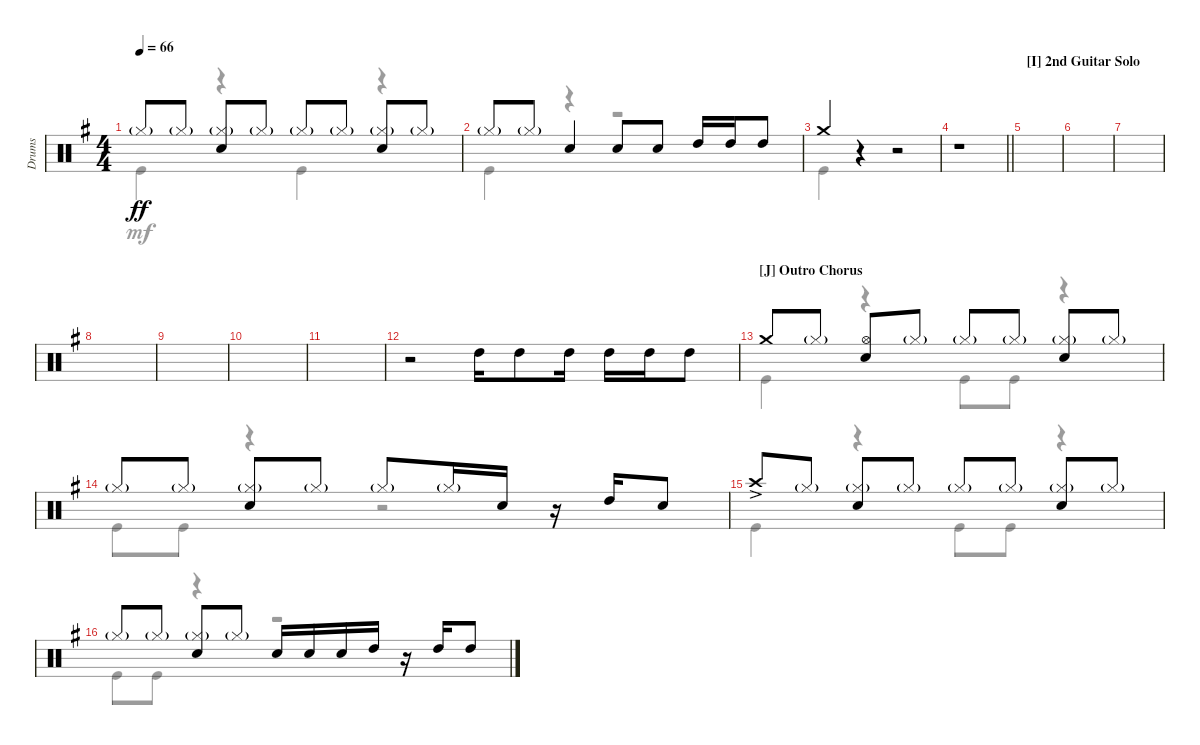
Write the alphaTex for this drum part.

\defaultSystemsLayout 4
\bracketExtendMode groupsimilarinstruments
\otherSystemsTrackNameOrientation horizontal
\track ("Drumkit" "Drums") {instrument percussion}
\staff {score}
\articulation defaults
\voice
\ts (4 4)
\tempo 66
\clef neutral
\ks g "Hi-Hat (closed)"{g}.8{dy ff} "Hi-Hat (closed)"{g}.8
("Hi-Hat (closed)"{g} "Snare (hit) 2").8 "Hi-Hat (closed)"{g}.8 "Hi-Hat (closed)"{g}.8 "Hi-Hat (closed)"{g}.8 ("Hi-Hat (closed)"{g} "Snare (hit) 2").8 "Hi-Hat (closed)"{g}.8 |
"Hi-Hat (closed)"{g}.8 "Hi-Hat (closed)"{g}.8 "Snare (hit) 2".4 "Snare (hit) 2".8 "Snare (hit) 2".8 "High Tom (hit)".16 "High Tom (hit)".16 "High Tom (hit)".8 |
"Crash medium (hit)".4 r.4 r.2 |
\barLineRight lightlight
r.1 |
\section ("I" "2nd Guitar Solo")
|
|
|
|
|
|
|
r.2 "High Tom (hit)".16 "High Tom (hit)".8 "High Tom (hit)".16 "High Tom (hit)".16 "High Tom (hit)".16 "High Tom (hit)".8 |
\section ("J" "Outro Chorus")
"Crash medium (hit)".8 "Hi-Hat (closed)"{g}.8 ("Hi-Hat (open)" "Snare (hit) 2").8 "Hi-Hat (closed)"{g}.8 "Hi-Hat (closed)"{g}.8 "Hi-Hat (closed)"{g}.8 ("Hi-Hat (closed)"{g} "Snare (hit) 2").8 "Hi-Hat (closed)"{g}.8 |
"Hi-Hat (closed)"{g}.8 "Hi-Hat (closed)"{g}.8 ("Hi-Hat (closed)"{g} "Snare (hit) 2").8 "Hi-Hat (closed)"{g}.8 "Hi-Hat (closed)"{g}.8 "Hi-Hat (closed)"{g}.16 "Snare (hit) 2".16 r.16 "High Tom (hit)".16 "Snare (hit) 2".8 |
"Crash high (hit)"{ac}.8 "Hi-Hat (closed)"{g}.8 ("Hi-Hat (closed)"{g} "Snare (hit) 2").8 "Hi-Hat (closed)"{g}.8 "Hi-Hat (closed)"{g}.8 "Hi-Hat (closed)"{g}.8 ("Hi-Hat (closed)"{g} "Snare (hit) 2").8 "Hi-Hat (closed)"{g}.8 |
"Hi-Hat (closed)"{g}.8 "Hi-Hat (closed)"{g}.8 ("Hi-Hat (closed)"{g} "Snare (hit) 2").8 "Hi-Hat (closed)"{g}.8 "Snare (hit) 2".16 "Snare (hit) 2".16 "Snare (hit) 2".16 "High Tom (hit)".16 r.16 "High Tom (hit)".16 "High Tom (hit)".8
\voice
\clef neutral
\ottava regular
\simile none
\ks g "Kick (hit)".4{dy mf}
r.4 "Kick (hit)".4 r.4 |
"Kick (hit)".4 r.4 r.2 |
"Kick (hit)".4 r.4 r.2 |
\barLineRight lightlight
|
|
|
|
|
|
|
|
|
"Kick (hit)".4 r.4 "Kick (hit)".8 "Kick (hit)".8 r.4 |
"Kick (hit)".8 "Kick (hit)".8 r.4 r.2 |
"Kick (hit)".4 r.4 "Kick (hit)".8 "Kick (hit)".8 r.4 |
"Kick (hit)".8 "Kick (hit)".8 r.4 r.2
